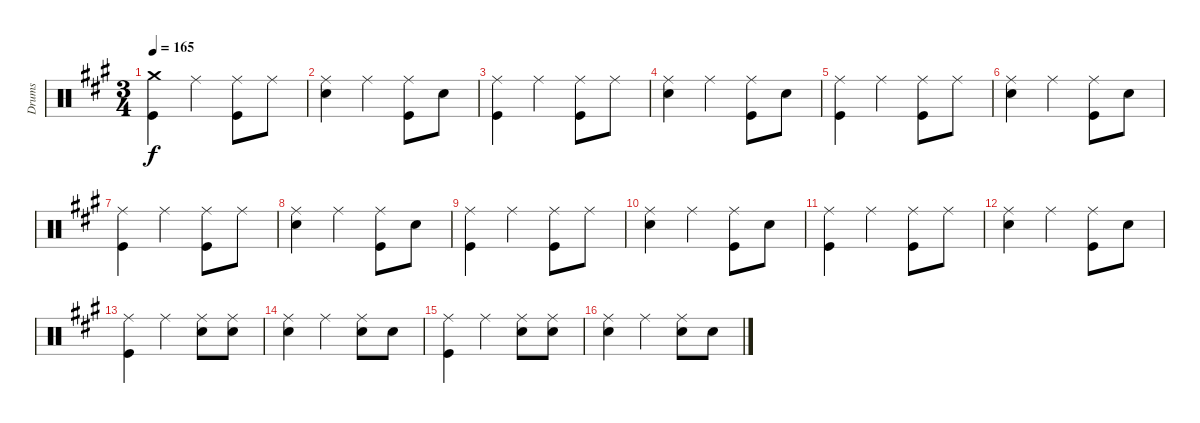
\track ("Drums" "Drums") {instrument percussion}
\staff {score}
\articulation defaults
\ts (3 4)
\tempo 165
\clef neutral
\ks a
("Crash medium (hit)" "Kick (hit)").4{dy f} "Ride (middle)".4 ("Ride (middle)" "Kick (hit)").8 "Ride (middle)".8 |
("Ride (middle)" "Snare (hit) 2").4 "Ride (middle)".4 ("Ride (middle)" "Kick (hit)").8 "Snare (hit) 2".8 |
("Ride (middle)" "Kick (hit)").4 "Ride (middle)".4 ("Ride (middle)" "Kick (hit)").8 "Ride (middle)".8 |
("Ride (middle)" "Snare (hit) 2").4 "Ride (middle)".4 ("Ride (middle)" "Kick (hit)").8 "Snare (hit) 2".8 |
("Ride (middle)" "Kick (hit)").4 "Ride (middle)".4 ("Ride (middle)" "Kick (hit)").8 "Ride (middle)".8 |
("Ride (middle)" "Snare (hit) 2").4 "Ride (middle)".4 ("Ride (middle)" "Kick (hit)").8 "Snare (hit) 2".8 |
("Ride (middle)" "Kick (hit)").4 "Ride (middle)".4 ("Ride (middle)" "Kick (hit)").8 "Ride (middle)".8 |
("Ride (middle)" "Snare (hit) 2").4 "Ride (middle)".4 ("Ride (middle)" "Kick (hit)").8 "Snare (hit) 2".8 |
("Ride (middle)" "Kick (hit)").4 "Ride (middle)".4 ("Ride (middle)" "Kick (hit)").8 "Ride (middle)".8 |
("Ride (middle)" "Snare (hit) 2").4 "Ride (middle)".4 ("Ride (middle)" "Kick (hit)").8 "Snare (hit) 2".8 |
("Ride (middle)" "Kick (hit)").4 "Ride (middle)".4 ("Ride (middle)" "Kick (hit)").8 "Ride (middle)".8 |
("Ride (middle)" "Snare (hit) 2").4 "Ride (middle)".4 ("Ride (middle)" "Kick (hit)").8 "Snare (hit) 2".8 |
("Ride (middle)" "Kick (hit)").4 "Ride (middle)".4 ("Ride (middle)" "Snare (hit) 2").8 ("Ride (middle)" "Snare (hit) 2").8 |
("Ride (middle)" "Snare (hit) 2").4 "Ride (middle)".4 ("Ride (middle)" "Snare (hit) 2").8 "Snare (hit) 2".8 |
("Ride (middle)" "Kick (hit)").4 "Ride (middle)".4 ("Ride (middle)" "Snare (hit) 2").8 ("Ride (middle)" "Snare (hit) 2").8 |
("Ride (middle)" "Snare (hit) 2").4 "Ride (middle)".4 ("Ride (middle)" "Snare (hit) 2").8 "Snare (hit) 2".8
